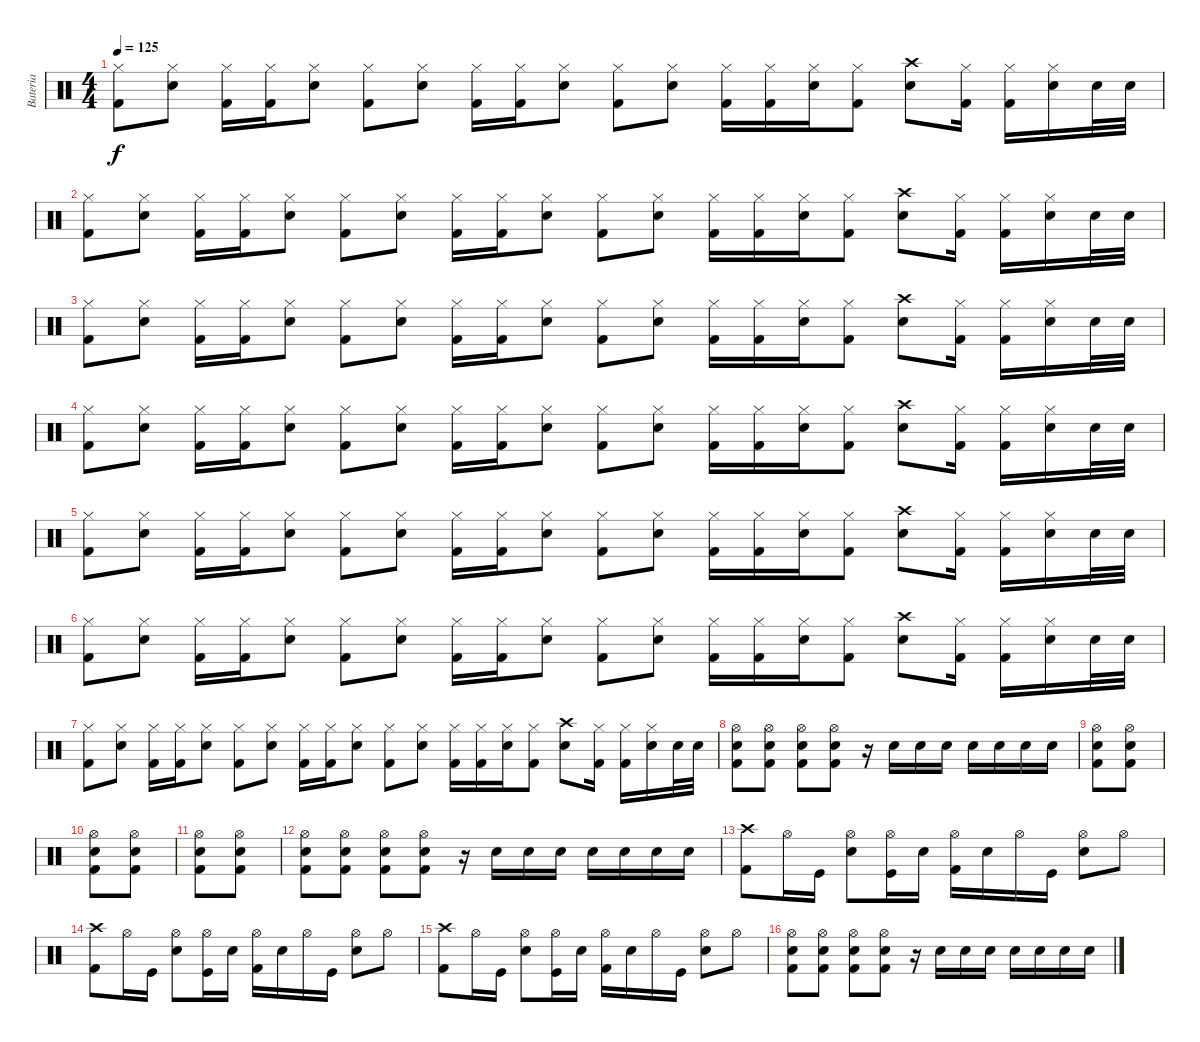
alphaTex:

\track ("Bateria" "Bateria") {instrument percussion}
\staff {score}
\articulation defaults
\ts (4 4)
\tempo 125
\clef neutral
\ks c
("Kick (hit) 2" "Hi-Hat (closed)").8{dy f} ("Snare (hit) 2" "Hi-Hat (closed)").8 ("Kick (hit) 2" "Hi-Hat (closed)").16 ("Kick (hit) 2" "Hi-Hat (closed)").16 ("Snare (hit) 2" "Hi-Hat (closed)").8 ("Kick (hit) 2" "Hi-Hat (closed)").8 ("Snare (hit) 2" "Hi-Hat (closed)").8 ("Kick (hit) 2" "Hi-Hat (closed)").16 ("Kick (hit) 2" "Hi-Hat (closed)").16 ("Snare (hit) 2" "Hi-Hat (closed)").8 ("Kick (hit) 2" "Hi-Hat (closed)").8 ("Snare (hit) 2" "Hi-Hat (closed)").8 ("Kick (hit) 2" "Hi-Hat (closed)").16 ("Kick (hit) 2" "Hi-Hat (closed)").16 ("Snare (hit) 2" "Hi-Hat (closed)").16 ("Kick (hit) 2" "Hi-Hat (closed)").8 ("Snare (hit) 2" "Crash high (hit)").8 ("Kick (hit) 2" "Hi-Hat (closed)").16 ("Kick (hit) 2" "Hi-Hat (closed)").16 ("Snare (hit) 2" "Hi-Hat (closed)").16 "Snare (hit) 2".32 "Snare (hit) 2".32 |
("Kick (hit) 2" "Hi-Hat (closed)").8 ("Snare (hit) 2" "Hi-Hat (closed)").8 ("Kick (hit) 2" "Hi-Hat (closed)").16 ("Kick (hit) 2" "Hi-Hat (closed)").16 ("Snare (hit) 2" "Hi-Hat (closed)").8 ("Kick (hit) 2" "Hi-Hat (closed)").8 ("Snare (hit) 2" "Hi-Hat (closed)").8 ("Kick (hit) 2" "Hi-Hat (closed)").16 ("Kick (hit) 2" "Hi-Hat (closed)").16 ("Snare (hit) 2" "Hi-Hat (closed)").8 ("Kick (hit) 2" "Hi-Hat (closed)").8 ("Snare (hit) 2" "Hi-Hat (closed)").8 ("Kick (hit) 2" "Hi-Hat (closed)").16 ("Kick (hit) 2" "Hi-Hat (closed)").16 ("Snare (hit) 2" "Hi-Hat (closed)").16 ("Kick (hit) 2" "Hi-Hat (closed)").8 ("Snare (hit) 2" "Crash high (hit)").8 ("Kick (hit) 2" "Hi-Hat (closed)").16 ("Kick (hit) 2" "Hi-Hat (closed)").16 ("Snare (hit) 2" "Hi-Hat (closed)").16 "Snare (hit) 2".32 "Snare (hit) 2".32 |
("Kick (hit) 2" "Hi-Hat (closed)").8 ("Snare (hit) 2" "Hi-Hat (closed)").8 ("Kick (hit) 2" "Hi-Hat (closed)").16 ("Kick (hit) 2" "Hi-Hat (closed)").16 ("Snare (hit) 2" "Hi-Hat (closed)").8 ("Kick (hit) 2" "Hi-Hat (closed)").8 ("Snare (hit) 2" "Hi-Hat (closed)").8 ("Kick (hit) 2" "Hi-Hat (closed)").16 ("Kick (hit) 2" "Hi-Hat (closed)").16 ("Snare (hit) 2" "Hi-Hat (closed)").8 ("Kick (hit) 2" "Hi-Hat (closed)").8 ("Snare (hit) 2" "Hi-Hat (closed)").8 ("Kick (hit) 2" "Hi-Hat (closed)").16 ("Kick (hit) 2" "Hi-Hat (closed)").16 ("Snare (hit) 2" "Hi-Hat (closed)").16 ("Kick (hit) 2" "Hi-Hat (closed)").8 ("Snare (hit) 2" "Crash high (hit)").8 ("Kick (hit) 2" "Hi-Hat (closed)").16 ("Kick (hit) 2" "Hi-Hat (closed)").16 ("Snare (hit) 2" "Hi-Hat (closed)").16 "Snare (hit) 2".32 "Snare (hit) 2".32 |
("Kick (hit) 2" "Hi-Hat (closed)").8 ("Snare (hit) 2" "Hi-Hat (closed)").8 ("Kick (hit) 2" "Hi-Hat (closed)").16 ("Kick (hit) 2" "Hi-Hat (closed)").16 ("Snare (hit) 2" "Hi-Hat (closed)").8 ("Kick (hit) 2" "Hi-Hat (closed)").8 ("Snare (hit) 2" "Hi-Hat (closed)").8 ("Kick (hit) 2" "Hi-Hat (closed)").16 ("Kick (hit) 2" "Hi-Hat (closed)").16 ("Snare (hit) 2" "Hi-Hat (closed)").8 ("Kick (hit) 2" "Hi-Hat (closed)").8 ("Snare (hit) 2" "Hi-Hat (closed)").8 ("Kick (hit) 2" "Hi-Hat (closed)").16 ("Kick (hit) 2" "Hi-Hat (closed)").16 ("Snare (hit) 2" "Hi-Hat (closed)").16 ("Kick (hit) 2" "Hi-Hat (closed)").8 ("Snare (hit) 2" "Crash high (hit)").8 ("Kick (hit) 2" "Hi-Hat (closed)").16 ("Kick (hit) 2" "Hi-Hat (closed)").16 ("Snare (hit) 2" "Hi-Hat (closed)").16 "Snare (hit) 2".32 "Snare (hit) 2".32 |
("Kick (hit) 2" "Hi-Hat (closed)").8 ("Snare (hit) 2" "Hi-Hat (closed)").8 ("Kick (hit) 2" "Hi-Hat (closed)").16 ("Kick (hit) 2" "Hi-Hat (closed)").16 ("Snare (hit) 2" "Hi-Hat (closed)").8 ("Kick (hit) 2" "Hi-Hat (closed)").8 ("Snare (hit) 2" "Hi-Hat (closed)").8 ("Kick (hit) 2" "Hi-Hat (closed)").16 ("Kick (hit) 2" "Hi-Hat (closed)").16 ("Snare (hit) 2" "Hi-Hat (closed)").8 ("Kick (hit) 2" "Hi-Hat (closed)").8 ("Snare (hit) 2" "Hi-Hat (closed)").8 ("Kick (hit) 2" "Hi-Hat (closed)").16 ("Kick (hit) 2" "Hi-Hat (closed)").16 ("Snare (hit) 2" "Hi-Hat (closed)").16 ("Kick (hit) 2" "Hi-Hat (closed)").8 ("Snare (hit) 2" "Crash high (hit)").8 ("Kick (hit) 2" "Hi-Hat (closed)").16 ("Kick (hit) 2" "Hi-Hat (closed)").16 ("Snare (hit) 2" "Hi-Hat (closed)").16 "Snare (hit) 2".32 "Snare (hit) 2".32 |
("Kick (hit) 2" "Hi-Hat (closed)").8 ("Snare (hit) 2" "Hi-Hat (closed)").8 ("Kick (hit) 2" "Hi-Hat (closed)").16 ("Kick (hit) 2" "Hi-Hat (closed)").16 ("Snare (hit) 2" "Hi-Hat (closed)").8 ("Kick (hit) 2" "Hi-Hat (closed)").8 ("Snare (hit) 2" "Hi-Hat (closed)").8 ("Kick (hit) 2" "Hi-Hat (closed)").16 ("Kick (hit) 2" "Hi-Hat (closed)").16 ("Snare (hit) 2" "Hi-Hat (closed)").8 ("Kick (hit) 2" "Hi-Hat (closed)").8 ("Snare (hit) 2" "Hi-Hat (closed)").8 ("Kick (hit) 2" "Hi-Hat (closed)").16 ("Kick (hit) 2" "Hi-Hat (closed)").16 ("Snare (hit) 2" "Hi-Hat (closed)").16 ("Kick (hit) 2" "Hi-Hat (closed)").8 ("Snare (hit) 2" "Crash high (hit)").8 ("Kick (hit) 2" "Hi-Hat (closed)").16 ("Kick (hit) 2" "Hi-Hat (closed)").16 ("Snare (hit) 2" "Hi-Hat (closed)").16 "Snare (hit) 2".32 "Snare (hit) 2".32 |
("Kick (hit) 2" "Hi-Hat (closed)").8 ("Snare (hit) 2" "Hi-Hat (closed)").8 ("Kick (hit) 2" "Hi-Hat (closed)").16 ("Kick (hit) 2" "Hi-Hat (closed)").16 ("Snare (hit) 2" "Hi-Hat (closed)").8 ("Kick (hit) 2" "Hi-Hat (closed)").8 ("Snare (hit) 2" "Hi-Hat (closed)").8 ("Kick (hit) 2" "Hi-Hat (closed)").16 ("Kick (hit) 2" "Hi-Hat (closed)").16 ("Snare (hit) 2" "Hi-Hat (closed)").8 ("Kick (hit) 2" "Hi-Hat (closed)").8 ("Snare (hit) 2" "Hi-Hat (closed)").8 ("Kick (hit) 2" "Hi-Hat (closed)").16 ("Kick (hit) 2" "Hi-Hat (closed)").16 ("Snare (hit) 2" "Hi-Hat (closed)").16 ("Kick (hit) 2" "Hi-Hat (closed)").8 ("Snare (hit) 2" "Crash high (hit)").8 ("Kick (hit) 2" "Hi-Hat (closed)").16 ("Kick (hit) 2" "Hi-Hat (closed)").16 ("Snare (hit) 2" "Hi-Hat (closed)").16 "Snare (hit) 2".32 "Snare (hit) 2".32 |
("Kick (hit) 2" "Snare (hit) 2" "Hi-Hat (open)").8 ("Kick (hit) 2" "Snare (hit) 2" "Hi-Hat (open)").8 ("Kick (hit) 2" "Snare (hit) 2" "Hi-Hat (open)").8 ("Kick (hit) 2" "Snare (hit) 2" "Hi-Hat (open)").8 r.16 "Snare (hit) 2".16 "Snare (hit) 2".16 "Snare (hit) 2".16 "Snare (hit) 2".16 "Snare (hit) 2".16 "Snare (hit) 2".16 "Snare (hit) 2".16 |
("Hi-Hat (open)" "Snare (hit) 2" "Kick (hit) 2").8 ("Hi-Hat (open)" "Snare (hit) 2" "Kick (hit) 2").8 |
("Hi-Hat (open)" "Snare (hit) 2" "Kick (hit) 2").8 ("Hi-Hat (open)" "Snare (hit) 2" "Kick (hit) 2").8 |
("Hi-Hat (open)" "Snare (hit) 2" "Kick (hit) 2").8 ("Hi-Hat (open)" "Snare (hit) 2" "Kick (hit) 2").8 |
("Kick (hit) 2" "Snare (hit) 2" "Hi-Hat (open)").8 ("Kick (hit) 2" "Snare (hit) 2" "Hi-Hat (open)").8 ("Kick (hit) 2" "Snare (hit) 2" "Hi-Hat (open)").8 ("Kick (hit) 2" "Snare (hit) 2" "Hi-Hat (open)").8 r.16 "Snare (hit) 2".16 "Snare (hit) 2".16 "Snare (hit) 2".16 "Snare (hit) 2".16 "Snare (hit) 2".16 "Snare (hit) 2".16 "Snare (hit) 2".16 |
("Crash high (hit)" "Kick (hit) 2").8 "Hi-Hat (open)".16 "Kick (hit)".16 ("Hi-Hat (open)" "Electric Snare (hit)").8 ("Hi-Hat (open)" "Kick (hit)").16 "Electric Snare (hit)".16 ("Kick (hit) 2" "Hi-Hat (open)").16 "Electric Snare (hit)".16 "Hi-Hat (open)".16 "Kick (hit)".16 ("Hi-Hat (open)" "Electric Snare (hit)").8 "Hi-Hat (open)".8 |
("Crash high (hit)" "Kick (hit) 2").8 "Hi-Hat (open)".16 "Kick (hit)".16 ("Hi-Hat (open)" "Electric Snare (hit)").8 ("Hi-Hat (open)" "Kick (hit)").16 "Electric Snare (hit)".16 ("Kick (hit) 2" "Hi-Hat (open)").16 "Electric Snare (hit)".16 "Hi-Hat (open)".16 "Kick (hit)".16 ("Hi-Hat (open)" "Electric Snare (hit)").8 "Hi-Hat (open)".8 |
("Crash high (hit)" "Kick (hit) 2").8 "Hi-Hat (open)".16 "Kick (hit)".16 ("Hi-Hat (open)" "Electric Snare (hit)").8 ("Hi-Hat (open)" "Kick (hit)").16 "Electric Snare (hit)".16 ("Kick (hit) 2" "Hi-Hat (open)").16 "Electric Snare (hit)".16 "Hi-Hat (open)".16 "Kick (hit)".16 ("Hi-Hat (open)" "Electric Snare (hit)").8 "Hi-Hat (open)".8 |
("Kick (hit) 2" "Snare (hit) 2" "Hi-Hat (open)").8 ("Kick (hit) 2" "Snare (hit) 2" "Hi-Hat (open)").8 ("Kick (hit) 2" "Snare (hit) 2" "Hi-Hat (open)").8 ("Kick (hit) 2" "Snare (hit) 2" "Hi-Hat (open)").8 r.16 "Snare (hit) 2".16 "Snare (hit) 2".16 "Snare (hit) 2".16 "Snare (hit) 2".16 "Snare (hit) 2".16 "Snare (hit) 2".16 "Snare (hit) 2".16
